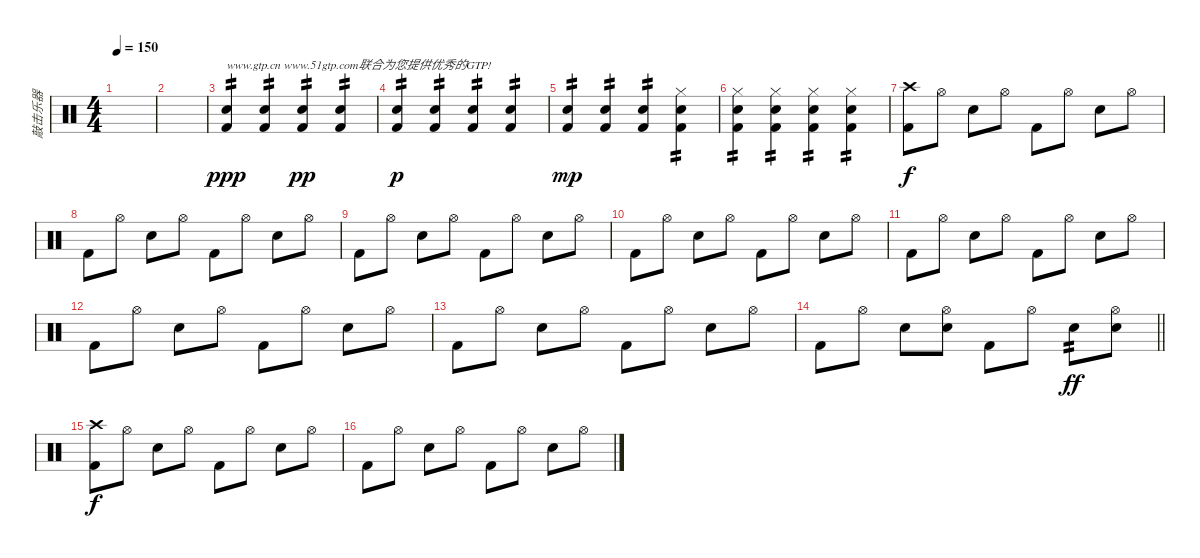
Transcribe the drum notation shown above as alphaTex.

\track ("敲击乐器" "敲击乐器") {instrument percussion}
\staff {score}
\articulation defaults
\ts (4 4)
\tempo 150
\clef neutral
\ks c
|
|
("Snare (hit) 2" "Kick (hit) 2").4{txt "www.gtp.cn www.51gtp.com联合为您提供优秀的GTP!" tp 2 dy ppp} ("Snare (hit) 2" "Kick (hit) 2").4{tp 2} ("Snare (hit) 2" "Kick (hit) 2").4{tp 2 dy pp} ("Snare (hit) 2" "Kick (hit) 2").4{tp 2} |
("Snare (hit) 2" "Kick (hit) 2").4{tp 2 dy p} ("Snare (hit) 2" "Kick (hit) 2").4{tp 2} ("Snare (hit) 2" "Kick (hit) 2").4{tp 2} ("Snare (hit) 2" "Kick (hit) 2").4{tp 2} |
("Snare (hit) 2" "Kick (hit) 2").4{tp 2 dy mp} ("Snare (hit) 2" "Kick (hit) 2").4{tp 2} ("Snare (hit) 2" "Kick (hit) 2").4{tp 2} ("Hi-Hat (closed)" "Snare (hit) 2" "Kick (hit) 2").4{tp 2} |
("Hi-Hat (closed)" "Snare (hit) 2" "Kick (hit) 2").4{tp 2} ("Hi-Hat (closed)" "Snare (hit) 2" "Kick (hit) 2").4{tp 2} ("Hi-Hat (closed)" "Snare (hit) 2" "Kick (hit) 2").4{tp 2} ("Hi-Hat (closed)" "Snare (hit) 2" "Kick (hit) 2").4{tp 2} |
("Crash high (hit)" "Kick (hit) 2").8{dy f} "Hi-Hat (open)".8 "Snare (hit) 2".8 "Hi-Hat (open)".8 "Kick (hit) 2".8 "Hi-Hat (open)".8 "Snare (hit) 2".8 "Hi-Hat (open)".8 |
"Kick (hit) 2".8 "Hi-Hat (open)".8 "Snare (hit) 2".8 "Hi-Hat (open)".8 "Kick (hit) 2".8 "Hi-Hat (open)".8 "Snare (hit) 2".8 "Hi-Hat (open)".8 |
"Kick (hit) 2".8 "Hi-Hat (open)".8 "Snare (hit) 2".8 "Hi-Hat (open)".8 "Kick (hit) 2".8 "Hi-Hat (open)".8 "Snare (hit) 2".8 "Hi-Hat (open)".8 |
"Kick (hit) 2".8 "Hi-Hat (open)".8 "Snare (hit) 2".8 "Hi-Hat (open)".8 "Kick (hit) 2".8 "Hi-Hat (open)".8 "Snare (hit) 2".8 "Hi-Hat (open)".8 |
"Kick (hit) 2".8 "Hi-Hat (open)".8 "Snare (hit) 2".8 "Hi-Hat (open)".8 "Kick (hit) 2".8 "Hi-Hat (open)".8 "Snare (hit) 2".8 "Hi-Hat (open)".8 |
"Kick (hit) 2".8 "Hi-Hat (open)".8 "Snare (hit) 2".8 "Hi-Hat (open)".8 "Kick (hit) 2".8 "Hi-Hat (open)".8 "Snare (hit) 2".8 "Hi-Hat (open)".8 |
"Kick (hit) 2".8 "Hi-Hat (open)".8 "Snare (hit) 2".8 "Hi-Hat (open)".8 "Kick (hit) 2".8 "Hi-Hat (open)".8 "Snare (hit) 2".8 "Hi-Hat (open)".8 |
\barLineRight lightlight "Kick (hit) 2".8 "Hi-Hat (open)".8 "Snare (hit) 2".8
("Hi-Hat (open)" "Snare (hit) 2").8 "Kick (hit) 2".8 "Hi-Hat (open)".8 "Snare (hit) 2".8{tp 2 dy ff} ("Hi-Hat (open)" "Snare (hit) 2").8 |
\section ("" "")
("Crash high (hit)" "Kick (hit) 2").8{dy f} "Hi-Hat (open)".8 "Snare (hit) 2".8 "Hi-Hat (open)".8 "Kick (hit) 2".8 "Hi-Hat (open)".8 "Snare (hit) 2".8 "Hi-Hat (open)".8 |
"Kick (hit) 2".8 "Hi-Hat (open)".8 "Snare (hit) 2".8 "Hi-Hat (open)".8 "Kick (hit) 2".8 "Hi-Hat (open)".8 "Snare (hit) 2".8 "Hi-Hat (open)".8
